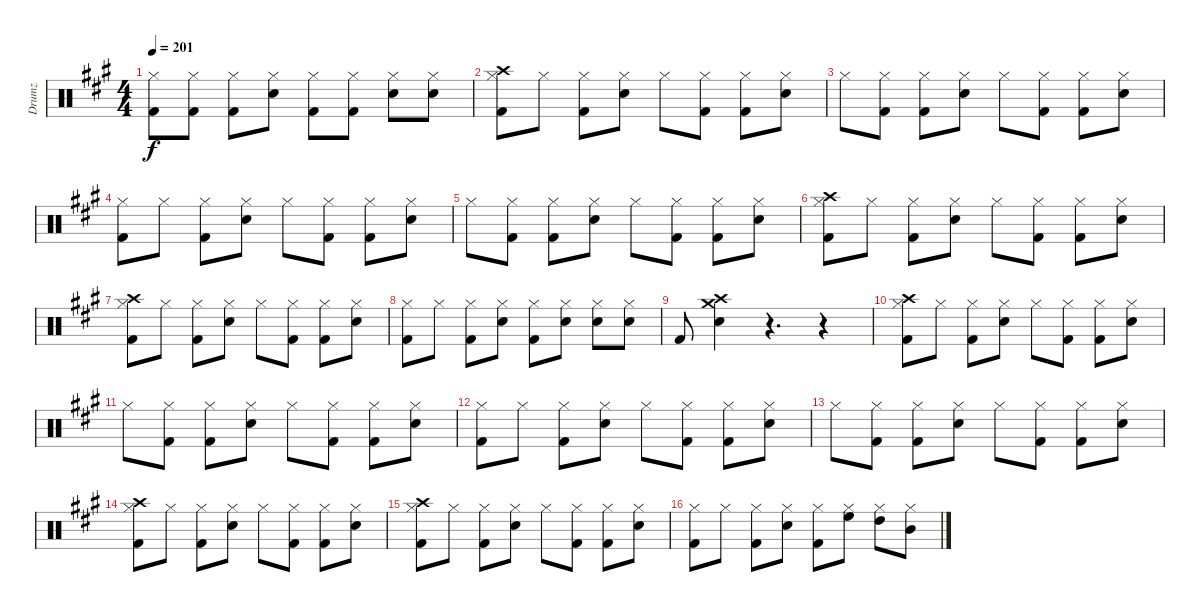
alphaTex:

\track ("Drumz" "Drumz") {instrument percussion}
\staff {score}
\articulation defaults
\ts (4 4)
\tempo 201
\clef neutral
\ks a
("Hi-Hat (closed)" "Kick (hit) 2").8{dy f} ("Hi-Hat (closed)" "Kick (hit) 2").8 ("Hi-Hat (closed)" "Kick (hit) 2").8 ("Hi-Hat (closed)" "Snare (hit) 2").8 ("Hi-Hat (closed)" "Kick (hit) 2").8 ("Hi-Hat (closed)" "Kick (hit) 2").8 ("Hi-Hat (closed)" "Snare (hit) 2").8 ("Hi-Hat (closed)" "Snare (hit) 2").8 |
("Hi-Hat (closed)" "Kick (hit) 2" "Crash high (hit)").8 "Hi-Hat (closed)".8 ("Hi-Hat (closed)" "Kick (hit) 2").8 ("Hi-Hat (closed)" "Snare (hit) 2").8 "Hi-Hat (closed)".8 ("Hi-Hat (closed)" "Kick (hit) 2").8 ("Hi-Hat (closed)" "Kick (hit) 2").8 ("Hi-Hat (closed)" "Snare (hit) 2").8 |
"Hi-Hat (closed)".8 ("Hi-Hat (closed)" "Kick (hit) 2").8 ("Hi-Hat (closed)" "Kick (hit) 2").8 ("Hi-Hat (closed)" "Snare (hit) 2").8 "Hi-Hat (closed)".8 ("Hi-Hat (closed)" "Kick (hit) 2").8 ("Hi-Hat (closed)" "Kick (hit) 2").8 ("Hi-Hat (closed)" "Snare (hit) 2").8 |
("Hi-Hat (closed)" "Kick (hit) 2").8 "Hi-Hat (closed)".8 ("Hi-Hat (closed)" "Kick (hit) 2").8 ("Hi-Hat (closed)" "Snare (hit) 2").8 "Hi-Hat (closed)".8 ("Hi-Hat (closed)" "Kick (hit) 2").8 ("Hi-Hat (closed)" "Kick (hit) 2").8 ("Hi-Hat (closed)" "Snare (hit) 2").8 |
"Hi-Hat (closed)".8 ("Hi-Hat (closed)" "Kick (hit) 2").8 ("Hi-Hat (closed)" "Kick (hit) 2").8 ("Hi-Hat (closed)" "Snare (hit) 2").8 "Hi-Hat (closed)".8 ("Hi-Hat (closed)" "Kick (hit) 2").8 ("Hi-Hat (closed)" "Kick (hit) 2").8 ("Hi-Hat (closed)" "Snare (hit) 2").8 |
("Hi-Hat (closed)" "Kick (hit) 2" "Crash high (hit)").8 "Hi-Hat (closed)".8 ("Hi-Hat (closed)" "Kick (hit) 2").8 ("Hi-Hat (closed)" "Snare (hit) 2").8 "Hi-Hat (closed)".8 ("Hi-Hat (closed)" "Kick (hit) 2").8 ("Hi-Hat (closed)" "Kick (hit) 2").8 ("Hi-Hat (closed)" "Snare (hit) 2").8 |
("Hi-Hat (closed)" "Kick (hit) 2" "Crash high (hit)").8 "Hi-Hat (closed)".8 ("Hi-Hat (closed)" "Kick (hit) 2").8 ("Hi-Hat (closed)" "Snare (hit) 2").8 "Hi-Hat (closed)".8 ("Hi-Hat (closed)" "Kick (hit) 2").8 ("Hi-Hat (closed)" "Kick (hit) 2").8 ("Hi-Hat (closed)" "Snare (hit) 2").8 |
("Hi-Hat (closed)" "Kick (hit) 2").8 "Hi-Hat (closed)".8 ("Hi-Hat (closed)" "Kick (hit) 2").8 ("Hi-Hat (closed)" "Snare (hit) 2").8 ("Hi-Hat (closed)" "Kick (hit) 2").8 ("Hi-Hat (closed)" "Snare (hit) 2").8 ("Hi-Hat (closed)" "Snare (hit) 2").8 ("Hi-Hat (closed)" "Snare (hit) 2").8 |
"Kick (hit) 2".8 ("Snare (hit) 2" "Crash high (hit)" "Crash medium (hit)").4 r.4{d} r.4 |
("Hi-Hat (closed)" "Kick (hit) 2" "Crash high (hit)").8 "Hi-Hat (closed)".8 ("Hi-Hat (closed)" "Kick (hit) 2").8 ("Hi-Hat (closed)" "Snare (hit) 2").8 "Hi-Hat (closed)".8 ("Hi-Hat (closed)" "Kick (hit) 2").8 ("Hi-Hat (closed)" "Kick (hit) 2").8 ("Hi-Hat (closed)" "Snare (hit) 2").8 |
"Hi-Hat (closed)".8 ("Hi-Hat (closed)" "Kick (hit) 2").8 ("Hi-Hat (closed)" "Kick (hit) 2").8 ("Hi-Hat (closed)" "Snare (hit) 2").8 "Hi-Hat (closed)".8 ("Hi-Hat (closed)" "Kick (hit) 2").8 ("Hi-Hat (closed)" "Kick (hit) 2").8 ("Hi-Hat (closed)" "Snare (hit) 2").8 |
("Hi-Hat (closed)" "Kick (hit) 2").8 "Hi-Hat (closed)".8 ("Hi-Hat (closed)" "Kick (hit) 2").8 ("Hi-Hat (closed)" "Snare (hit) 2").8 "Hi-Hat (closed)".8 ("Hi-Hat (closed)" "Kick (hit) 2").8 ("Hi-Hat (closed)" "Kick (hit) 2").8 ("Hi-Hat (closed)" "Snare (hit) 2").8 |
"Hi-Hat (closed)".8 ("Hi-Hat (closed)" "Kick (hit) 2").8 ("Hi-Hat (closed)" "Kick (hit) 2").8 ("Hi-Hat (closed)" "Snare (hit) 2").8 "Hi-Hat (closed)".8 ("Hi-Hat (closed)" "Kick (hit) 2").8 ("Hi-Hat (closed)" "Kick (hit) 2").8 ("Hi-Hat (closed)" "Snare (hit) 2").8 |
("Hi-Hat (closed)" "Kick (hit) 2" "Crash high (hit)").8 "Hi-Hat (closed)".8 ("Hi-Hat (closed)" "Kick (hit) 2").8 ("Hi-Hat (closed)" "Snare (hit) 2").8 "Hi-Hat (closed)".8 ("Hi-Hat (closed)" "Kick (hit) 2").8 ("Hi-Hat (closed)" "Kick (hit) 2").8 ("Hi-Hat (closed)" "Snare (hit) 2").8 |
("Hi-Hat (closed)" "Kick (hit) 2" "Crash high (hit)").8 "Hi-Hat (closed)".8 ("Hi-Hat (closed)" "Kick (hit) 2").8 ("Hi-Hat (closed)" "Snare (hit) 2").8 "Hi-Hat (closed)".8 ("Hi-Hat (closed)" "Kick (hit) 2").8 ("Hi-Hat (closed)" "Kick (hit) 2").8 ("Hi-Hat (closed)" "Snare (hit) 2").8 |
("Hi-Hat (closed)" "Kick (hit) 2").8 "Hi-Hat (closed)".8 ("Hi-Hat (closed)" "Kick (hit) 2").8 ("Hi-Hat (closed)" "Snare (hit) 2").8 ("Hi-Hat (closed)" "Kick (hit) 2").8 ("Hi-Hat (closed)" "High Floor Tom (hit)").8 ("Hi-Hat (closed)" "High Tom (hit)").8 ("Hi-Hat (closed)" "Mid Tom (hit)").8
